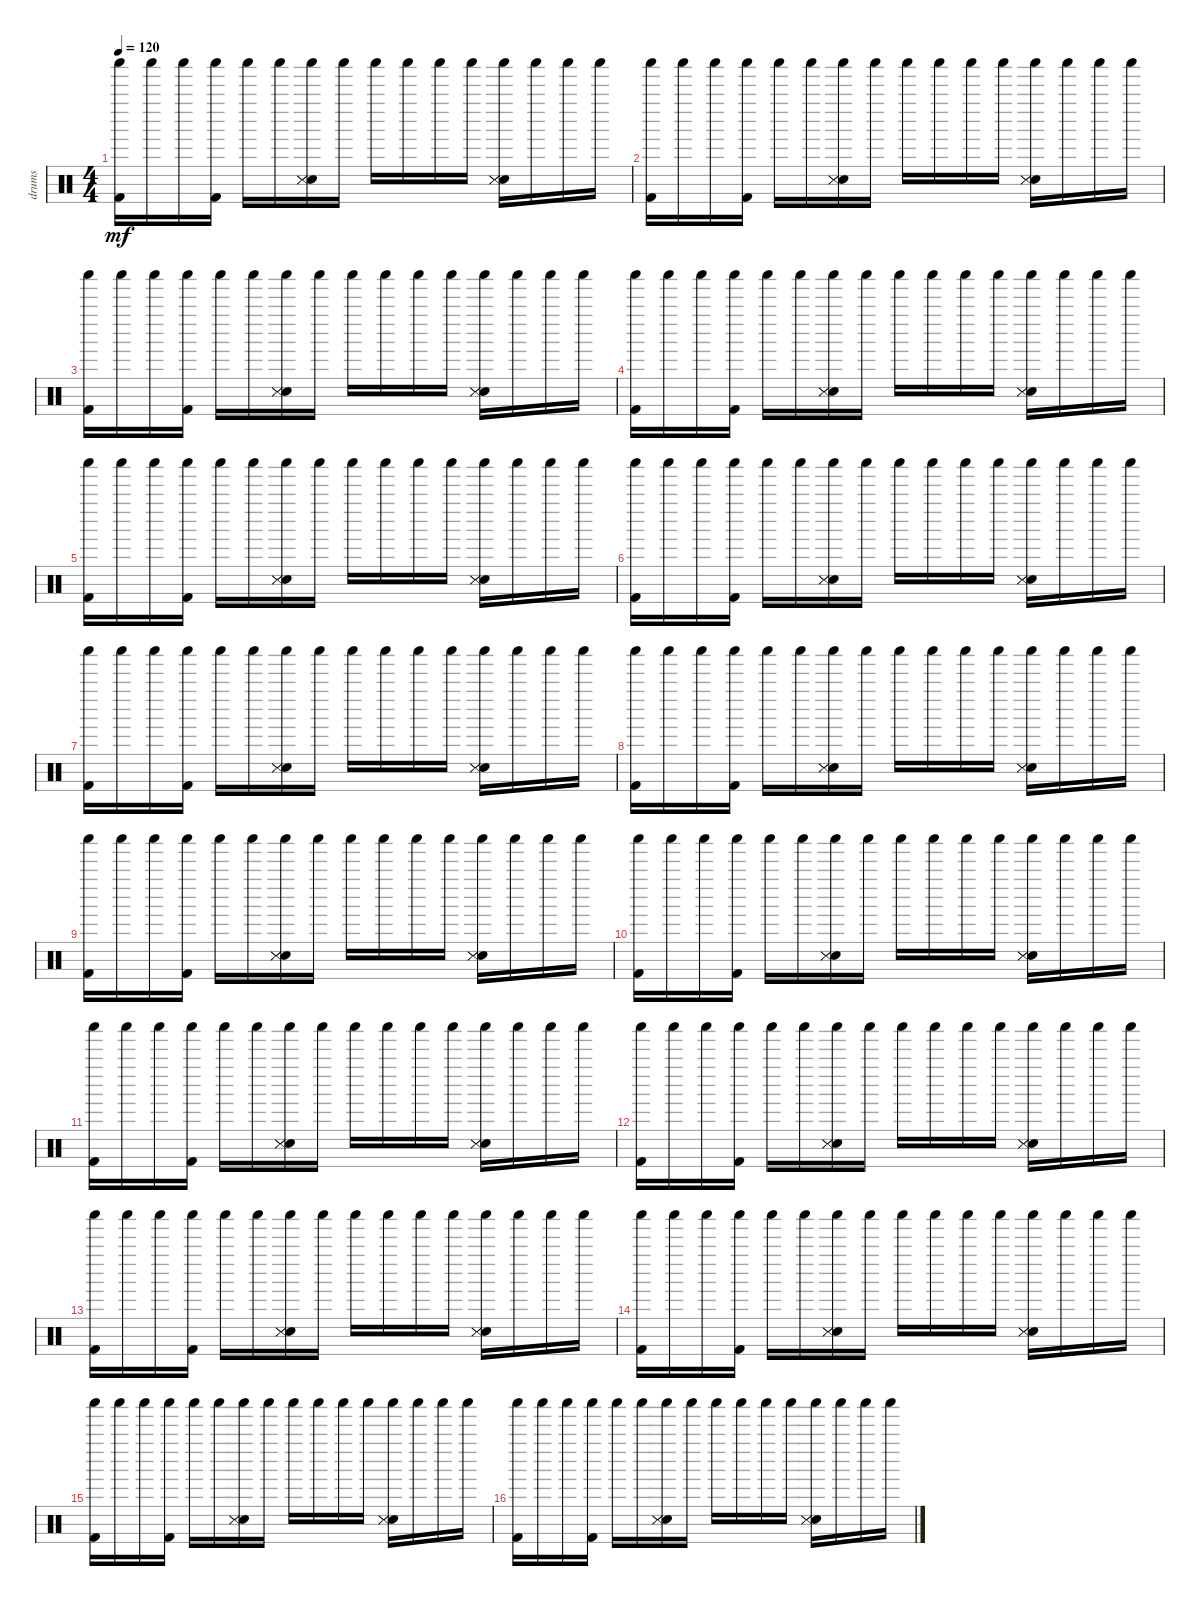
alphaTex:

\track ("drums" "drums") {instrument percussion}
\staff {score}
\articulation defaults
\ts (4 4)
\tempo 120
\clef neutral
\ks c
("Kick (hit) 2" "Shaker (hit)").16{dy mf} "Shaker (hit)".16 "Shaker (hit)".16 ("Kick (hit) 2" "Shaker (hit)").16 "Shaker (hit)".16 "Shaker (hit)".16 ("Electric Snare (hit)" "Snare (side stick) 3" "Snare (side stick) 3" "Shaker (hit)").16 "Shaker (hit)".16 "Shaker (hit)".16 "Shaker (hit)".16 "Shaker (hit)".16 "Shaker (hit)".16 ("Electric Snare (hit)" "Snare (side stick) 3" "Snare (side stick) 3" "Shaker (hit)").16 "Shaker (hit)".16 "Shaker (hit)".16 "Shaker (hit)".16 |
("Kick (hit) 2" "Shaker (hit)").16 "Shaker (hit)".16 "Shaker (hit)".16 ("Kick (hit) 2" "Shaker (hit)").16 "Shaker (hit)".16 "Shaker (hit)".16 ("Electric Snare (hit)" "Snare (side stick) 3" "Snare (side stick) 3" "Shaker (hit)").16 "Shaker (hit)".16 "Shaker (hit)".16 "Shaker (hit)".16 "Shaker (hit)".16 "Shaker (hit)".16 ("Electric Snare (hit)" "Snare (side stick) 3" "Snare (side stick) 3" "Shaker (hit)").16 "Shaker (hit)".16 "Shaker (hit)".16 "Shaker (hit)".16 |
("Kick (hit) 2" "Shaker (hit)").16 "Shaker (hit)".16 "Shaker (hit)".16 ("Kick (hit) 2" "Shaker (hit)").16 "Shaker (hit)".16 "Shaker (hit)".16 ("Electric Snare (hit)" "Snare (side stick) 3" "Snare (side stick) 3" "Shaker (hit)").16 "Shaker (hit)".16 "Shaker (hit)".16 "Shaker (hit)".16 "Shaker (hit)".16 "Shaker (hit)".16 ("Electric Snare (hit)" "Snare (side stick) 3" "Snare (side stick) 3" "Shaker (hit)").16 "Shaker (hit)".16 "Shaker (hit)".16 "Shaker (hit)".16 |
("Kick (hit) 2" "Shaker (hit)").16 "Shaker (hit)".16 "Shaker (hit)".16 ("Kick (hit) 2" "Shaker (hit)").16 "Shaker (hit)".16 "Shaker (hit)".16 ("Electric Snare (hit)" "Snare (side stick) 3" "Snare (side stick) 3" "Shaker (hit)").16 "Shaker (hit)".16 "Shaker (hit)".16 "Shaker (hit)".16 "Shaker (hit)".16 "Shaker (hit)".16 ("Electric Snare (hit)" "Snare (side stick) 3" "Snare (side stick) 3" "Shaker (hit)").16 "Shaker (hit)".16 "Shaker (hit)".16 "Shaker (hit)".16 |
("Kick (hit) 2" "Shaker (hit)").16 "Shaker (hit)".16 "Shaker (hit)".16 ("Kick (hit) 2" "Shaker (hit)").16 "Shaker (hit)".16 "Shaker (hit)".16 ("Electric Snare (hit)" "Snare (side stick) 3" "Snare (side stick) 3" "Shaker (hit)").16 "Shaker (hit)".16 "Shaker (hit)".16 "Shaker (hit)".16 "Shaker (hit)".16 "Shaker (hit)".16 ("Electric Snare (hit)" "Snare (side stick) 3" "Snare (side stick) 3" "Shaker (hit)").16 "Shaker (hit)".16 "Shaker (hit)".16 "Shaker (hit)".16 |
("Kick (hit) 2" "Shaker (hit)").16 "Shaker (hit)".16 "Shaker (hit)".16 ("Kick (hit) 2" "Shaker (hit)").16 "Shaker (hit)".16 "Shaker (hit)".16 ("Electric Snare (hit)" "Snare (side stick) 3" "Snare (side stick) 3" "Shaker (hit)").16 "Shaker (hit)".16 "Shaker (hit)".16 "Shaker (hit)".16 "Shaker (hit)".16 "Shaker (hit)".16 ("Electric Snare (hit)" "Snare (side stick) 3" "Snare (side stick) 3" "Shaker (hit)").16 "Shaker (hit)".16 "Shaker (hit)".16 "Shaker (hit)".16 |
("Kick (hit) 2" "Shaker (hit)").16 "Shaker (hit)".16 "Shaker (hit)".16 ("Kick (hit) 2" "Shaker (hit)").16 "Shaker (hit)".16 "Shaker (hit)".16 ("Electric Snare (hit)" "Snare (side stick) 3" "Snare (side stick) 3" "Shaker (hit)").16 "Shaker (hit)".16 "Shaker (hit)".16 "Shaker (hit)".16 "Shaker (hit)".16 "Shaker (hit)".16 ("Electric Snare (hit)" "Snare (side stick) 3" "Snare (side stick) 3" "Shaker (hit)").16 "Shaker (hit)".16 "Shaker (hit)".16 "Shaker (hit)".16 |
("Kick (hit) 2" "Shaker (hit)").16 "Shaker (hit)".16 "Shaker (hit)".16 ("Kick (hit) 2" "Shaker (hit)").16 "Shaker (hit)".16 "Shaker (hit)".16 ("Electric Snare (hit)" "Snare (side stick) 3" "Snare (side stick) 3" "Shaker (hit)").16 "Shaker (hit)".16 "Shaker (hit)".16 "Shaker (hit)".16 "Shaker (hit)".16 "Shaker (hit)".16 ("Electric Snare (hit)" "Snare (side stick) 3" "Snare (side stick) 3" "Shaker (hit)").16 "Shaker (hit)".16 "Shaker (hit)".16 "Shaker (hit)".16 |
("Kick (hit) 2" "Shaker (hit)").16 "Shaker (hit)".16 "Shaker (hit)".16 ("Kick (hit) 2" "Shaker (hit)").16 "Shaker (hit)".16 "Shaker (hit)".16 ("Electric Snare (hit)" "Snare (side stick) 3" "Snare (side stick) 3" "Shaker (hit)").16 "Shaker (hit)".16 "Shaker (hit)".16 "Shaker (hit)".16 "Shaker (hit)".16 "Shaker (hit)".16 ("Electric Snare (hit)" "Snare (side stick) 3" "Snare (side stick) 3" "Shaker (hit)").16 "Shaker (hit)".16 "Shaker (hit)".16 "Shaker (hit)".16 |
("Kick (hit) 2" "Shaker (hit)").16 "Shaker (hit)".16 "Shaker (hit)".16 ("Kick (hit) 2" "Shaker (hit)").16 "Shaker (hit)".16 "Shaker (hit)".16 ("Electric Snare (hit)" "Snare (side stick) 3" "Snare (side stick) 3" "Shaker (hit)").16 "Shaker (hit)".16 "Shaker (hit)".16 "Shaker (hit)".16 "Shaker (hit)".16 "Shaker (hit)".16 ("Electric Snare (hit)" "Snare (side stick) 3" "Snare (side stick) 3" "Shaker (hit)").16 "Shaker (hit)".16 "Shaker (hit)".16 "Shaker (hit)".16 |
("Kick (hit) 2" "Shaker (hit)").16 "Shaker (hit)".16 "Shaker (hit)".16 ("Kick (hit) 2" "Shaker (hit)").16 "Shaker (hit)".16 "Shaker (hit)".16 ("Electric Snare (hit)" "Snare (side stick) 3" "Snare (side stick) 3" "Shaker (hit)").16 "Shaker (hit)".16 "Shaker (hit)".16 "Shaker (hit)".16 "Shaker (hit)".16 "Shaker (hit)".16 ("Electric Snare (hit)" "Snare (side stick) 3" "Snare (side stick) 3" "Shaker (hit)").16 "Shaker (hit)".16 "Shaker (hit)".16 "Shaker (hit)".16 |
("Kick (hit) 2" "Shaker (hit)").16 "Shaker (hit)".16 "Shaker (hit)".16 ("Kick (hit) 2" "Shaker (hit)").16 "Shaker (hit)".16 "Shaker (hit)".16 ("Electric Snare (hit)" "Snare (side stick) 3" "Snare (side stick) 3" "Shaker (hit)").16 "Shaker (hit)".16 "Shaker (hit)".16 "Shaker (hit)".16 "Shaker (hit)".16 "Shaker (hit)".16 ("Electric Snare (hit)" "Snare (side stick) 3" "Snare (side stick) 3" "Shaker (hit)").16 "Shaker (hit)".16 "Shaker (hit)".16 "Shaker (hit)".16 |
("Kick (hit) 2" "Shaker (hit)").16 "Shaker (hit)".16 "Shaker (hit)".16 ("Kick (hit) 2" "Shaker (hit)").16 "Shaker (hit)".16 "Shaker (hit)".16 ("Electric Snare (hit)" "Snare (side stick) 3" "Snare (side stick) 3" "Shaker (hit)").16 "Shaker (hit)".16 "Shaker (hit)".16 "Shaker (hit)".16 "Shaker (hit)".16 "Shaker (hit)".16 ("Electric Snare (hit)" "Snare (side stick) 3" "Snare (side stick) 3" "Shaker (hit)").16 "Shaker (hit)".16 "Shaker (hit)".16 "Shaker (hit)".16 |
("Kick (hit) 2" "Shaker (hit)").16 "Shaker (hit)".16 "Shaker (hit)".16 ("Kick (hit) 2" "Shaker (hit)").16 "Shaker (hit)".16 "Shaker (hit)".16 ("Electric Snare (hit)" "Snare (side stick) 3" "Snare (side stick) 3" "Shaker (hit)").16 "Shaker (hit)".16 "Shaker (hit)".16 "Shaker (hit)".16 "Shaker (hit)".16 "Shaker (hit)".16 ("Electric Snare (hit)" "Snare (side stick) 3" "Snare (side stick) 3" "Shaker (hit)").16 "Shaker (hit)".16 "Shaker (hit)".16 "Shaker (hit)".16 |
("Kick (hit) 2" "Shaker (hit)").16 "Shaker (hit)".16 "Shaker (hit)".16 ("Kick (hit) 2" "Shaker (hit)").16 "Shaker (hit)".16 "Shaker (hit)".16 ("Electric Snare (hit)" "Snare (side stick) 3" "Snare (side stick) 3" "Shaker (hit)").16 "Shaker (hit)".16 "Shaker (hit)".16 "Shaker (hit)".16 "Shaker (hit)".16 "Shaker (hit)".16 ("Electric Snare (hit)" "Snare (side stick) 3" "Snare (side stick) 3" "Shaker (hit)").16 "Shaker (hit)".16 "Shaker (hit)".16 "Shaker (hit)".16 |
("Kick (hit) 2" "Shaker (hit)").16 "Shaker (hit)".16 "Shaker (hit)".16 ("Kick (hit) 2" "Shaker (hit)").16 "Shaker (hit)".16 "Shaker (hit)".16 ("Electric Snare (hit)" "Snare (side stick) 3" "Snare (side stick) 3" "Shaker (hit)").16 "Shaker (hit)".16 "Shaker (hit)".16 "Shaker (hit)".16 "Shaker (hit)".16 "Shaker (hit)".16 ("Electric Snare (hit)" "Snare (side stick) 3" "Snare (side stick) 3" "Shaker (hit)").16 "Shaker (hit)".16 "Shaker (hit)".16 "Shaker (hit)".16
